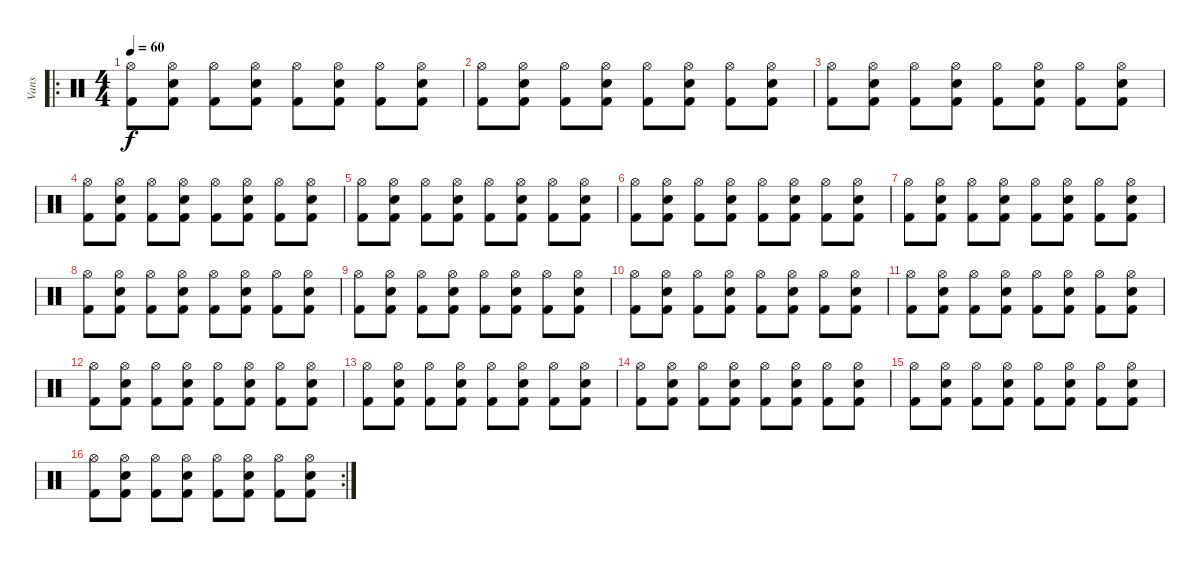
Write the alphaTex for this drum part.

\track ("Vans" "Vans") {instrument percussion}
\staff {score}
\articulation defaults
\ro
\ts (4 4)
\tempo 60
\clef neutral
\ks c
("Hi-Hat (open)" "Kick (hit) 2").8{dy f} ("Hi-Hat (open)" "Snare (hit) 2" "Kick (hit) 2").8 ("Hi-Hat (open)" "Kick (hit) 2").8 ("Hi-Hat (open)" "Snare (hit) 2" "Kick (hit) 2").8 ("Hi-Hat (open)" "Kick (hit) 2").8 ("Hi-Hat (open)" "Snare (hit) 2" "Kick (hit) 2").8 ("Hi-Hat (open)" "Kick (hit) 2").8 ("Hi-Hat (open)" "Snare (hit) 2" "Kick (hit) 2").8 |
("Hi-Hat (open)" "Kick (hit) 2").8 ("Hi-Hat (open)" "Snare (hit) 2" "Kick (hit) 2").8 ("Hi-Hat (open)" "Kick (hit) 2").8 ("Hi-Hat (open)" "Snare (hit) 2" "Kick (hit) 2").8 ("Hi-Hat (open)" "Kick (hit) 2").8 ("Hi-Hat (open)" "Snare (hit) 2" "Kick (hit) 2").8 ("Hi-Hat (open)" "Kick (hit) 2").8 ("Hi-Hat (open)" "Snare (hit) 2" "Kick (hit) 2").8 |
("Hi-Hat (open)" "Kick (hit) 2").8 ("Hi-Hat (open)" "Snare (hit) 2" "Kick (hit) 2").8 ("Hi-Hat (open)" "Kick (hit) 2").8 ("Hi-Hat (open)" "Snare (hit) 2" "Kick (hit) 2").8 ("Hi-Hat (open)" "Kick (hit) 2").8 ("Hi-Hat (open)" "Snare (hit) 2" "Kick (hit) 2").8 ("Hi-Hat (open)" "Kick (hit) 2").8 ("Hi-Hat (open)" "Snare (hit) 2" "Kick (hit) 2").8 |
("Hi-Hat (open)" "Kick (hit) 2").8 ("Hi-Hat (open)" "Snare (hit) 2" "Kick (hit) 2").8 ("Hi-Hat (open)" "Kick (hit) 2").8 ("Hi-Hat (open)" "Snare (hit) 2" "Kick (hit) 2").8 ("Hi-Hat (open)" "Kick (hit) 2").8 ("Hi-Hat (open)" "Snare (hit) 2" "Kick (hit) 2").8 ("Hi-Hat (open)" "Kick (hit) 2").8 ("Hi-Hat (open)" "Snare (hit) 2" "Kick (hit) 2").8 |
("Hi-Hat (open)" "Kick (hit) 2").8 ("Hi-Hat (open)" "Snare (hit) 2" "Kick (hit) 2").8 ("Hi-Hat (open)" "Kick (hit) 2").8 ("Hi-Hat (open)" "Snare (hit) 2" "Kick (hit) 2").8 ("Hi-Hat (open)" "Kick (hit) 2").8 ("Hi-Hat (open)" "Snare (hit) 2" "Kick (hit) 2").8 ("Hi-Hat (open)" "Kick (hit) 2").8 ("Hi-Hat (open)" "Snare (hit) 2" "Kick (hit) 2").8 |
("Hi-Hat (open)" "Kick (hit) 2").8 ("Hi-Hat (open)" "Snare (hit) 2" "Kick (hit) 2").8 ("Hi-Hat (open)" "Kick (hit) 2").8 ("Hi-Hat (open)" "Snare (hit) 2" "Kick (hit) 2").8 ("Hi-Hat (open)" "Kick (hit) 2").8 ("Hi-Hat (open)" "Snare (hit) 2" "Kick (hit) 2").8 ("Hi-Hat (open)" "Kick (hit) 2").8 ("Hi-Hat (open)" "Snare (hit) 2" "Kick (hit) 2").8 |
("Hi-Hat (open)" "Kick (hit) 2").8 ("Hi-Hat (open)" "Snare (hit) 2" "Kick (hit) 2").8 ("Hi-Hat (open)" "Kick (hit) 2").8 ("Hi-Hat (open)" "Snare (hit) 2" "Kick (hit) 2").8 ("Hi-Hat (open)" "Kick (hit) 2").8 ("Hi-Hat (open)" "Snare (hit) 2" "Kick (hit) 2").8 ("Hi-Hat (open)" "Kick (hit) 2").8 ("Hi-Hat (open)" "Snare (hit) 2" "Kick (hit) 2").8 |
("Hi-Hat (open)" "Kick (hit) 2").8 ("Hi-Hat (open)" "Snare (hit) 2" "Kick (hit) 2").8 ("Hi-Hat (open)" "Kick (hit) 2").8 ("Hi-Hat (open)" "Snare (hit) 2" "Kick (hit) 2").8 ("Hi-Hat (open)" "Kick (hit) 2").8 ("Hi-Hat (open)" "Snare (hit) 2" "Kick (hit) 2").8 ("Hi-Hat (open)" "Kick (hit) 2").8 ("Hi-Hat (open)" "Snare (hit) 2" "Kick (hit) 2").8 |
("Hi-Hat (open)" "Kick (hit) 2").8 ("Hi-Hat (open)" "Snare (hit) 2" "Kick (hit) 2").8 ("Hi-Hat (open)" "Kick (hit) 2").8 ("Hi-Hat (open)" "Snare (hit) 2" "Kick (hit) 2").8 ("Hi-Hat (open)" "Kick (hit) 2").8 ("Hi-Hat (open)" "Snare (hit) 2" "Kick (hit) 2").8 ("Hi-Hat (open)" "Kick (hit) 2").8 ("Hi-Hat (open)" "Snare (hit) 2" "Kick (hit) 2").8 |
("Hi-Hat (open)" "Kick (hit) 2").8 ("Hi-Hat (open)" "Snare (hit) 2" "Kick (hit) 2").8 ("Hi-Hat (open)" "Kick (hit) 2").8 ("Hi-Hat (open)" "Snare (hit) 2" "Kick (hit) 2").8 ("Hi-Hat (open)" "Kick (hit) 2").8 ("Hi-Hat (open)" "Snare (hit) 2" "Kick (hit) 2").8 ("Hi-Hat (open)" "Kick (hit) 2").8 ("Hi-Hat (open)" "Snare (hit) 2" "Kick (hit) 2").8 |
("Hi-Hat (open)" "Kick (hit) 2").8 ("Hi-Hat (open)" "Snare (hit) 2" "Kick (hit) 2").8 ("Hi-Hat (open)" "Kick (hit) 2").8 ("Hi-Hat (open)" "Snare (hit) 2" "Kick (hit) 2").8 ("Hi-Hat (open)" "Kick (hit) 2").8 ("Hi-Hat (open)" "Snare (hit) 2" "Kick (hit) 2").8 ("Hi-Hat (open)" "Kick (hit) 2").8 ("Hi-Hat (open)" "Snare (hit) 2" "Kick (hit) 2").8 |
("Hi-Hat (open)" "Kick (hit) 2").8 ("Hi-Hat (open)" "Snare (hit) 2" "Kick (hit) 2").8 ("Hi-Hat (open)" "Kick (hit) 2").8 ("Hi-Hat (open)" "Snare (hit) 2" "Kick (hit) 2").8 ("Hi-Hat (open)" "Kick (hit) 2").8 ("Hi-Hat (open)" "Snare (hit) 2" "Kick (hit) 2").8 ("Hi-Hat (open)" "Kick (hit) 2").8 ("Hi-Hat (open)" "Snare (hit) 2" "Kick (hit) 2").8 |
("Hi-Hat (open)" "Kick (hit) 2").8 ("Hi-Hat (open)" "Snare (hit) 2" "Kick (hit) 2").8 ("Hi-Hat (open)" "Kick (hit) 2").8 ("Hi-Hat (open)" "Snare (hit) 2" "Kick (hit) 2").8 ("Hi-Hat (open)" "Kick (hit) 2").8 ("Hi-Hat (open)" "Snare (hit) 2" "Kick (hit) 2").8 ("Hi-Hat (open)" "Kick (hit) 2").8 ("Hi-Hat (open)" "Snare (hit) 2" "Kick (hit) 2").8 |
("Hi-Hat (open)" "Kick (hit) 2").8 ("Hi-Hat (open)" "Snare (hit) 2" "Kick (hit) 2").8 ("Hi-Hat (open)" "Kick (hit) 2").8 ("Hi-Hat (open)" "Snare (hit) 2" "Kick (hit) 2").8 ("Hi-Hat (open)" "Kick (hit) 2").8 ("Hi-Hat (open)" "Snare (hit) 2" "Kick (hit) 2").8 ("Hi-Hat (open)" "Kick (hit) 2").8 ("Hi-Hat (open)" "Snare (hit) 2" "Kick (hit) 2").8 |
("Hi-Hat (open)" "Kick (hit) 2").8 ("Hi-Hat (open)" "Snare (hit) 2" "Kick (hit) 2").8 ("Hi-Hat (open)" "Kick (hit) 2").8 ("Hi-Hat (open)" "Snare (hit) 2" "Kick (hit) 2").8 ("Hi-Hat (open)" "Kick (hit) 2").8 ("Hi-Hat (open)" "Snare (hit) 2" "Kick (hit) 2").8 ("Hi-Hat (open)" "Kick (hit) 2").8 ("Hi-Hat (open)" "Snare (hit) 2" "Kick (hit) 2").8 |
\rc 2
("Hi-Hat (open)" "Kick (hit) 2").8 ("Hi-Hat (open)" "Snare (hit) 2" "Kick (hit) 2").8 ("Hi-Hat (open)" "Kick (hit) 2").8 ("Hi-Hat (open)" "Snare (hit) 2" "Kick (hit) 2").8 ("Hi-Hat (open)" "Kick (hit) 2").8 ("Hi-Hat (open)" "Snare (hit) 2" "Kick (hit) 2").8 ("Hi-Hat (open)" "Kick (hit) 2").8 ("Hi-Hat (open)" "Snare (hit) 2" "Kick (hit) 2").8
